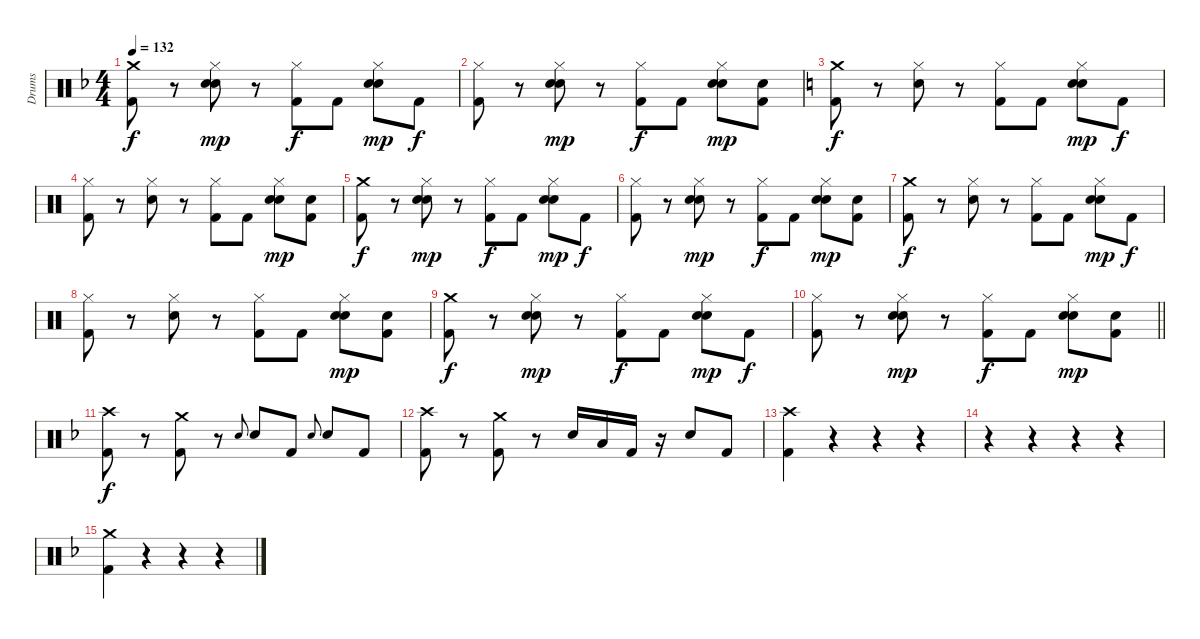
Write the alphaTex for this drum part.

\track ("Drums" "Drums") {instrument percussion}
\staff {score}
\articulation defaults
\ts (4 4)
\tempo 132
\clef neutral
\ks f
("Crash medium (hit)" "Kick (hit) 2").8{dy f} r.8 ("Hi-Hat (closed)" "Hand Clap (hit)" "Snare (hit) 2").8{dy mp} r.8 ("Hi-Hat (closed)" "Kick (hit) 2").8{dy f} "Kick (hit) 2".8 ("Hi-Hat (closed)" "Hand Clap (hit)" "Snare (hit) 2").8{dy mp} "Kick (hit) 2".8{dy f} |
("Hi-Hat (closed)" "Kick (hit) 2").8 r.8 ("Hi-Hat (closed)" "Hand Clap (hit)" "Snare (hit) 2").8{dy mp} r.8 ("Hi-Hat (closed)" "Kick (hit) 2").8{dy f} "Kick (hit) 2".8 ("Hi-Hat (closed)" "Hand Clap (hit)" "Snare (hit) 2").8{dy mp} ("Hand Clap (hit)" "Kick (hit) 2").8 |
\ks c
("Crash medium (hit)" "Kick (hit) 2").8{dy f} r.8 ("Hi-Hat (closed)" "Snare (hit) 2").8 r.8 ("Hi-Hat (closed)" "Kick (hit) 2").8 "Kick (hit) 2".8 ("Hi-Hat (closed)" "Hand Clap (hit)" "Snare (hit) 2").8{dy mp} "Kick (hit) 2".8{dy f} |
("Hi-Hat (closed)" "Kick (hit) 2").8 r.8 ("Hi-Hat (closed)" "Snare (hit) 2").8 r.8 ("Hi-Hat (closed)" "Kick (hit) 2").8 "Kick (hit) 2".8 ("Hi-Hat (closed)" "Hand Clap (hit)" "Snare (hit) 2").8{dy mp} ("Hand Clap (hit)" "Kick (hit) 2").8 |
("Crash medium (hit)" "Kick (hit) 2").8{dy f} r.8 ("Hi-Hat (closed)" "Hand Clap (hit)" "Snare (hit) 2").8{dy mp} r.8 ("Hi-Hat (closed)" "Kick (hit) 2").8{dy f} "Kick (hit) 2".8 ("Hi-Hat (closed)" "Hand Clap (hit)" "Snare (hit) 2").8{dy mp} "Kick (hit) 2".8{dy f} |
("Hi-Hat (closed)" "Kick (hit) 2").8 r.8 ("Hi-Hat (closed)" "Hand Clap (hit)" "Snare (hit) 2").8{dy mp} r.8 ("Hi-Hat (closed)" "Kick (hit) 2").8{dy f} "Kick (hit) 2".8 ("Hi-Hat (closed)" "Hand Clap (hit)" "Snare (hit) 2").8{dy mp} ("Hand Clap (hit)" "Kick (hit) 2").8 |
("Crash medium (hit)" "Kick (hit) 2").8{dy f} r.8 ("Hi-Hat (closed)" "Snare (hit) 2").8 r.8 ("Hi-Hat (closed)" "Kick (hit) 2").8 "Kick (hit) 2".8 ("Hi-Hat (closed)" "Hand Clap (hit)" "Snare (hit) 2").8{dy mp} "Kick (hit) 2".8{dy f} |
("Hi-Hat (closed)" "Kick (hit) 2").8 r.8 ("Hi-Hat (closed)" "Snare (hit) 2").8 r.8 ("Hi-Hat (closed)" "Kick (hit) 2").8 "Kick (hit) 2".8 ("Hi-Hat (closed)" "Hand Clap (hit)" "Snare (hit) 2").8{dy mp} ("Hand Clap (hit)" "Kick (hit) 2").8 |
("Crash medium (hit)" "Kick (hit) 2").8{dy f} r.8 ("Hi-Hat (closed)" "Hand Clap (hit)" "Snare (hit) 2").8{dy mp} r.8 ("Hi-Hat (closed)" "Kick (hit) 2").8{dy f} "Kick (hit) 2".8 ("Hi-Hat (closed)" "Hand Clap (hit)" "Snare (hit) 2").8{dy mp} "Kick (hit) 2".8{dy f} |
\barLineRight lightlight
("Hi-Hat (closed)" "Kick (hit) 2").8 r.8 ("Hi-Hat (closed)" "Hand Clap (hit)" "Snare (hit) 2").8{dy mp} r.8 ("Hi-Hat (closed)" "Kick (hit) 2").8{dy f} "Kick (hit) 2".8 ("Hi-Hat (closed)" "Hand Clap (hit)" "Snare (hit) 2").8{dy mp} ("Hand Clap (hit)" "Kick (hit) 2").8 |
\ks f
("Crash high (hit)" "Kick (hit) 2").8{dy f} r.8 ("Crash medium (hit)" "Kick (hit) 2").8 r.8 "Snare (hit) 2".8{gr onbeat} "Snare (hit) 2".8 "Kick (hit) 2".8 "Snare (hit) 2".8{gr onbeat} "Snare (hit) 2".8 "Kick (hit) 2".8 |
("Crash high (hit)" "Kick (hit) 2").8 r.8 ("Crash medium (hit)" "Kick (hit) 2").8 r.8 "Snare (hit) 2".16 "Low Floor Tom (hit)".16 "Kick (hit) 2".16 r.16 "Snare (hit) 2".8 "Kick (hit) 2".8 |
("Crash high (hit)" "Kick (hit) 2").4 r.4 r.4 r.4 |
r.4 r.4 r.4 r.4 |
("Crash medium (hit)" "Kick (hit) 2").4 r.4 r.4 r.4
